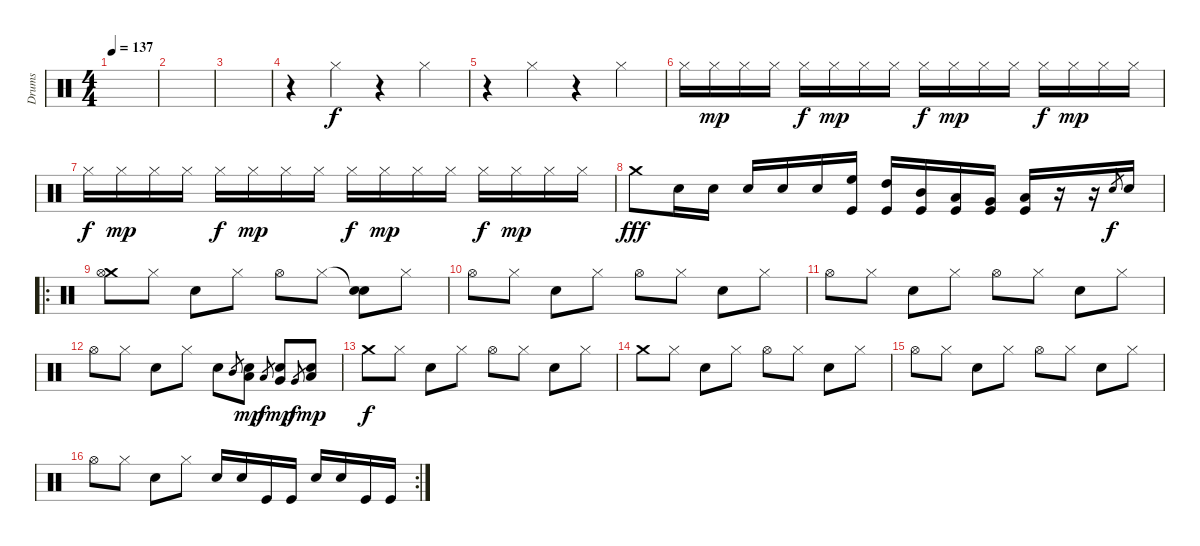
\track ("Drums" "Drums") {instrument percussion}
\staff {score}
\articulation defaults
\ts (4 4)
\tempo 137
\clef neutral
\ks c
|
|
|
r.4{volume 9} "Hi-Hat (closed)".4 r.4 "Hi-Hat (closed)".4 |
r.4 "Hi-Hat (closed)".4 r.4 "Hi-Hat (closed)".4 |
"Hi-Hat (closed)".16{volume 12} "Hi-Hat (closed)".16{dy mp} "Hi-Hat (closed)".16 "Hi-Hat (closed)".16 "Hi-Hat (closed)".16{dy f} "Hi-Hat (closed)".16{dy mp} "Hi-Hat (closed)".16 "Hi-Hat (closed)".16 "Hi-Hat (closed)".16{dy f} "Hi-Hat (closed)".16{dy mp} "Hi-Hat (closed)".16 "Hi-Hat (closed)".16 "Hi-Hat (closed)".16{dy f} "Hi-Hat (closed)".16{dy mp} "Hi-Hat (closed)".16 "Hi-Hat (closed)".16 |
"Hi-Hat (closed)".16{dy f volume 12} "Hi-Hat (closed)".16{dy mp} "Hi-Hat (closed)".16 "Hi-Hat (closed)".16 "Hi-Hat (closed)".16{dy f} "Hi-Hat (closed)".16{dy mp} "Hi-Hat (closed)".16 "Hi-Hat (closed)".16 "Hi-Hat (closed)".16{dy f} "Hi-Hat (closed)".16{dy mp} "Hi-Hat (closed)".16 "Hi-Hat (closed)".16 "Hi-Hat (closed)".16{dy f} "Hi-Hat (closed)".16{dy mp} "Hi-Hat (closed)".16 "Hi-Hat (closed)".16 |
"Crash medium (hit)".8{dy fff} "Electric Snare (hit)".16 "Electric Snare (hit)".16 "Electric Snare (hit)".16 "Electric Snare (hit)".16 "Electric Snare (hit)".16 ("High Floor Tom (hit)" "Kick (hit)").16 ("High Tom (hit)" "Kick (hit)").16 ("Mid Tom (hit)" "Kick (hit)").16 ("Low Tom (hit)" "Kick (hit)").16 ("Very Low Tom (hit)" "Kick (hit)").16 ("Low Floor Tom (hit)" "Kick (hit)").16 r.16 r.16 "Electric Snare (hit)".8{gr dy f} "Electric Snare (hit)".16 |
\ro
("Crash medium (hit)" "Hi-Hat (open)").8 "Hi-Hat (closed)".8 "Electric Snare (hit)".8 "Hi-Hat (closed)".8 "Hi-Hat (open)".8 "Hi-Hat (closed)".8 ("Snare (hit)"{t} "Electric Snare (hit)").8 "Hi-Hat (closed)".8 |
"Hi-Hat (open)".8 "Hi-Hat (closed)".8 "Electric Snare (hit)".8 "Hi-Hat (closed)".8 "Hi-Hat (open)".8 "Hi-Hat (closed)".8 "Electric Snare (hit)".8 "Hi-Hat (closed)".8 |
"Hi-Hat (open)".8 "Hi-Hat (closed)".8 "Electric Snare (hit)".8 "Hi-Hat (closed)".8 "Hi-Hat (open)".8 "Hi-Hat (closed)".8 "Electric Snare (hit)".8 "Hi-Hat (closed)".8 |
"Hi-Hat (open)".8 "Hi-Hat (closed)".8 "Electric Snare (hit)".8 "Hi-Hat (closed)".8 "Electric Snare (hit)".8 "Mid Tom (hit)".8{gr} ("Low Tom (hit)" "Snare (hit) 2").8{dy mp} "Low Tom (hit)".8{gr dy f} ("Very Low Tom (hit)" "Snare (hit) 2").8{dy mp} "Very Low Tom (hit)".8{gr dy f} ("Low Floor Tom (hit)" "Snare (hit) 2").8{dy mp} |
"Crash medium (hit)".8{dy f} "Hi-Hat (closed)".8 "Electric Snare (hit)".8 "Hi-Hat (closed)".8 "Hi-Hat (open)".8 "Hi-Hat (closed)".8 "Electric Snare (hit)".8 "Hi-Hat (closed)".8 |
"Crash medium (hit)".8 "Hi-Hat (closed)".8 "Electric Snare (hit)".8 "Hi-Hat (closed)".8 "Hi-Hat (open)".8 "Hi-Hat (closed)".8 "Electric Snare (hit)".8 "Hi-Hat (closed)".8 |
"Hi-Hat (open)".8 "Hi-Hat (closed)".8 "Electric Snare (hit)".8 "Hi-Hat (closed)".8 "Hi-Hat (open)".8 "Hi-Hat (closed)".8 "Electric Snare (hit)".8 "Hi-Hat (closed)".8 |
\rc 2 "Hi-Hat (open)".8 "Hi-Hat (closed)".8 "Electric Snare (hit)".8 "Hi-Hat (closed)".8 "Electric Snare (hit)".16 "Electric Snare (hit)".16 "Kick (hit)".16 "Kick (hit)".16 "Electric Snare (hit)".16 "Electric Snare (hit)".16 "Kick (hit)".16 "Kick (hit)".16
